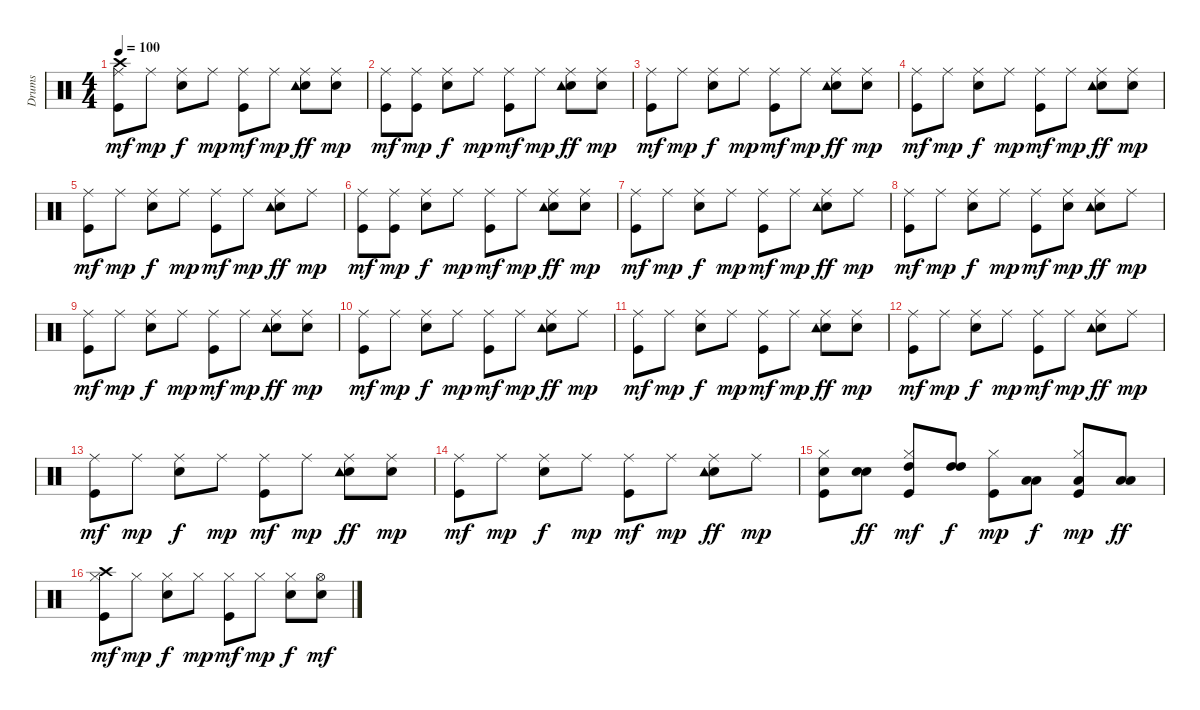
\track ("Drums" "Drums") {instrument percussion}
\staff {score}
\articulation defaults
\ts (4 4)
\tempo 100
\clef neutral
\ks c
("Kick (hit)" "Ride (middle)" "Crash high (hit)").8{dy mf} "Ride (middle)".8{dy mp} ("Snare (hit) 2" "Ride (middle)").8{dy f} "Ride (middle)".8{dy mp} ("Kick (hit)" "Ride (middle)").8{dy mf} "Ride (middle)".8{dy mp} ("Snare (hit) 2" "Ride (middle)" "Tambourine (hit)").8{dy ff} ("Snare (hit) 2" "Ride (middle)").8{dy mp} |
("Kick (hit)" "Ride (middle)").8{dy mf} ("Kick (hit)" "Ride (middle)").8{dy mp} ("Snare (hit) 2" "Ride (middle)").8{dy f} "Ride (middle)".8{dy mp} ("Kick (hit)" "Ride (middle)").8{dy mf} "Ride (middle)".8{dy mp} ("Snare (hit) 2" "Ride (middle)" "Tambourine (hit)").8{dy ff} ("Snare (hit) 2" "Ride (middle)").8{dy mp} |
("Kick (hit)" "Ride (middle)").8{dy mf} "Ride (middle)".8{dy mp} ("Snare (hit) 2" "Ride (middle)").8{dy f} "Ride (middle)".8{dy mp} ("Kick (hit)" "Ride (middle)").8{dy mf} "Ride (middle)".8{dy mp} ("Snare (hit) 2" "Ride (middle)" "Tambourine (hit)").8{dy ff} ("Snare (hit) 2" "Ride (middle)").8{dy mp} |
("Kick (hit)" "Ride (middle)").8{dy mf} "Ride (middle)".8{dy mp} ("Snare (hit) 2" "Ride (middle)").8{dy f} "Ride (middle)".8{dy mp} ("Kick (hit)" "Ride (middle)").8{dy mf} "Ride (middle)".8{dy mp} ("Snare (hit) 2" "Ride (middle)" "Tambourine (hit)").8{dy ff} ("Snare (hit) 2" "Ride (middle)").8{dy mp} |
("Kick (hit)" "Ride (middle)").8{dy mf} "Ride (middle)".8{dy mp} ("Snare (hit) 2" "Ride (middle)").8{dy f} "Ride (middle)".8{dy mp} ("Kick (hit)" "Ride (middle)").8{dy mf} "Ride (middle)".8{dy mp} ("Snare (hit) 2" "Ride (middle)" "Tambourine (hit)").8{dy ff} "Ride (middle)".8{dy mp} |
("Kick (hit)" "Ride (middle)").8{dy mf} ("Kick (hit)" "Ride (middle)").8{dy mp} ("Snare (hit) 2" "Ride (middle)").8{dy f} "Ride (middle)".8{dy mp} ("Kick (hit)" "Ride (middle)").8{dy mf} "Ride (middle)".8{dy mp} ("Snare (hit) 2" "Ride (middle)" "Tambourine (hit)").8{dy ff} ("Snare (hit) 2" "Ride (middle)").8{dy mp} |
("Kick (hit)" "Ride (middle)").8{dy mf} "Ride (middle)".8{dy mp} ("Snare (hit) 2" "Ride (middle)").8{dy f} "Ride (middle)".8{dy mp} ("Kick (hit)" "Ride (middle)").8{dy mf} "Ride (middle)".8{dy mp} ("Snare (hit) 2" "Ride (middle)" "Tambourine (hit)").8{dy ff} "Ride (middle)".8{dy mp} |
("Kick (hit)" "Ride (middle)").8{dy mf} "Ride (middle)".8{dy mp} ("Snare (hit) 2" "Ride (middle)").8{dy f} "Ride (middle)".8{dy mp} ("Kick (hit)" "Ride (middle)").8{dy mf} ("Snare (hit) 2" "Ride (middle)").8{dy mp} ("Snare (hit) 2" "Ride (middle)" "Tambourine (hit)").8{dy ff} "Ride (middle)".8{dy mp} |
("Kick (hit)" "Ride (middle)").8{dy mf} "Ride (middle)".8{dy mp} ("Snare (hit) 2" "Ride (middle)").8{dy f} "Ride (middle)".8{dy mp} ("Kick (hit)" "Ride (middle)").8{dy mf} "Ride (middle)".8{dy mp} ("Snare (hit) 2" "Ride (middle)" "Tambourine (hit)").8{dy ff} ("Snare (hit) 2" "Ride (middle)").8{dy mp} |
("Kick (hit)" "Ride (middle)").8{dy mf} "Ride (middle)".8{dy mp} ("Snare (hit) 2" "Ride (middle)").8{dy f} "Ride (middle)".8{dy mp} ("Kick (hit)" "Ride (middle)").8{dy mf} "Ride (middle)".8{dy mp} ("Snare (hit) 2" "Ride (middle)" "Tambourine (hit)").8{dy ff} "Ride (middle)".8{dy mp} |
("Kick (hit)" "Ride (middle)").8{dy mf} "Ride (middle)".8{dy mp} ("Snare (hit) 2" "Ride (middle)").8{dy f} "Ride (middle)".8{dy mp} ("Kick (hit)" "Ride (middle)").8{dy mf} "Ride (middle)".8{dy mp} ("Snare (hit) 2" "Ride (middle)" "Tambourine (hit)").8{dy ff} ("Snare (hit) 2" "Ride (middle)").8{dy mp} |
("Kick (hit)" "Ride (middle)").8{dy mf} "Ride (middle)".8{dy mp} ("Snare (hit) 2" "Ride (middle)").8{dy f} "Ride (middle)".8{dy mp} ("Kick (hit)" "Ride (middle)").8{dy mf} "Ride (middle)".8{dy mp} ("Snare (hit) 2" "Ride (middle)" "Tambourine (hit)").8{dy ff} "Ride (middle)".8{dy mp} |
("Kick (hit)" "Ride (middle)").8{dy mf} "Ride (middle)".8{dy mp} ("Snare (hit) 2" "Ride (middle)").8{dy f} "Ride (middle)".8{dy mp} ("Kick (hit)" "Ride (middle)").8{dy mf} "Ride (middle)".8{dy mp} ("Snare (hit) 2" "Ride (middle)" "Tambourine (hit)").8{dy ff} ("Snare (hit) 2" "Ride (middle)").8{dy mp} |
("Kick (hit)" "Ride (middle)").8{dy mf} "Ride (middle)".8{dy mp} ("Snare (hit) 2" "Ride (middle)").8{dy f} "Ride (middle)".8{dy mp} ("Kick (hit)" "Ride (middle)").8{dy mf} "Ride (middle)".8{dy mp} ("Snare (hit) 2" "Ride (middle)" "Tambourine (hit)").8{dy ff} "Ride (middle)".8{dy mp} |
("Kick (hit)" "Snare (hit) 2" "Hi-Hat (closed)").8 ("Snare (hit) 2" "Snare (hit) 2").8{dy ff} ("Kick (hit)" "Hi-Hat (closed)" "High Tom (hit)").8{dy mf} ("High Tom (hit)" "High Tom (hit)").8{dy f} ("Kick (hit)" "Hi-Hat (closed)").8{dy mp} ("Low Tom (hit)" "Low Tom (hit)").8{dy f} ("Kick (hit)" "Hi-Hat (closed)" "Low Floor Tom (hit)").8{dy mp} ("Low Floor Tom (hit)" "Low Floor Tom (hit)").8{dy ff} |
("Kick (hit)" "Hi-Hat (closed)" "Crash high (hit)").8{dy mf} "Hi-Hat (closed)".8{dy mp} ("Snare (hit) 2" "Hi-Hat (closed)").8{dy f} "Hi-Hat (closed)".8{dy mp} ("Kick (hit)" "Hi-Hat (closed)").8{dy mf} "Hi-Hat (closed)".8{dy mp} ("Snare (hit) 2" "Hi-Hat (closed)").8{dy f} ("Snare (hit) 2" "Hi-Hat (open)").8{dy mf}
